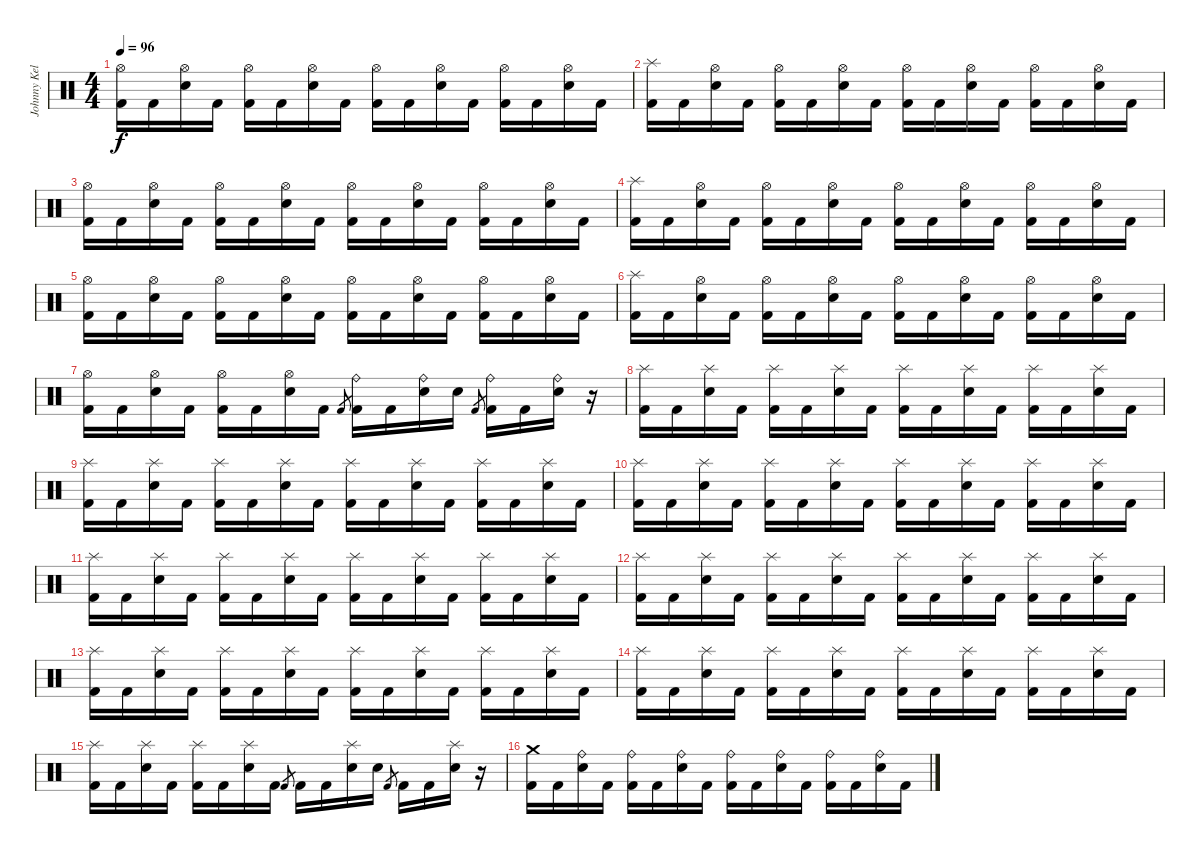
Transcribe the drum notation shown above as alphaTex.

\track ("Johnny Kelly - Drums" "Johnny Kel") {instrument percussion}
\staff {score}
\articulation defaults
\ts (4 4)
\tempo 96
\clef neutral
\ks c
("Hi-Hat (open)" "Kick (hit) 2").16{dy f} "Kick (hit) 2".16 ("Hi-Hat (open)" "Electric Snare (hit)").16 "Kick (hit) 2".16 ("Hi-Hat (open)" "Kick (hit) 2").16 "Kick (hit) 2".16 ("Hi-Hat (open)" "Electric Snare (hit)").16 "Kick (hit) 2".16 ("Hi-Hat (open)" "Kick (hit) 2").16 "Kick (hit) 2".16 ("Hi-Hat (open)" "Electric Snare (hit)").16 "Kick (hit) 2".16 ("Hi-Hat (open)" "Kick (hit) 2").16 "Kick (hit) 2".16 ("Hi-Hat (open)" "Electric Snare (hit)").16 "Kick (hit) 2".16 |
("Splash (hit)" "Kick (hit) 2").16 "Kick (hit) 2".16 ("Hi-Hat (open)" "Electric Snare (hit)").16 "Kick (hit) 2".16 ("Hi-Hat (open)" "Kick (hit) 2").16 "Kick (hit) 2".16 ("Hi-Hat (open)" "Electric Snare (hit)").16 "Kick (hit) 2".16 ("Hi-Hat (open)" "Kick (hit) 2").16 "Kick (hit) 2".16 ("Hi-Hat (open)" "Electric Snare (hit)").16 "Kick (hit) 2".16 ("Hi-Hat (open)" "Kick (hit) 2").16 "Kick (hit) 2".16 ("Hi-Hat (open)" "Electric Snare (hit)").16 "Kick (hit) 2".16 |
("Hi-Hat (open)" "Kick (hit) 2").16 "Kick (hit) 2".16 ("Hi-Hat (open)" "Electric Snare (hit)").16 "Kick (hit) 2".16 ("Hi-Hat (open)" "Kick (hit) 2").16 "Kick (hit) 2".16 ("Hi-Hat (open)" "Electric Snare (hit)").16 "Kick (hit) 2".16 ("Hi-Hat (open)" "Kick (hit) 2").16 "Kick (hit) 2".16 ("Hi-Hat (open)" "Electric Snare (hit)").16 "Kick (hit) 2".16 ("Hi-Hat (open)" "Kick (hit) 2").16 "Kick (hit) 2".16 ("Hi-Hat (open)" "Electric Snare (hit)").16 "Kick (hit) 2".16 |
("Splash (hit)" "Kick (hit) 2").16 "Kick (hit) 2".16 ("Hi-Hat (open)" "Electric Snare (hit)").16 "Kick (hit) 2".16 ("Hi-Hat (open)" "Kick (hit) 2").16 "Kick (hit) 2".16 ("Hi-Hat (open)" "Electric Snare (hit)").16 "Kick (hit) 2".16 ("Hi-Hat (open)" "Kick (hit) 2").16 "Kick (hit) 2".16 ("Hi-Hat (open)" "Electric Snare (hit)").16 "Kick (hit) 2".16 ("Hi-Hat (open)" "Kick (hit) 2").16 "Kick (hit) 2".16 ("Hi-Hat (open)" "Electric Snare (hit)").16 "Kick (hit) 2".16 |
("Hi-Hat (open)" "Kick (hit) 2").16 "Kick (hit) 2".16 ("Hi-Hat (open)" "Electric Snare (hit)").16 "Kick (hit) 2".16 ("Hi-Hat (open)" "Kick (hit) 2").16 "Kick (hit) 2".16 ("Hi-Hat (open)" "Electric Snare (hit)").16 "Kick (hit) 2".16 ("Hi-Hat (open)" "Kick (hit) 2").16 "Kick (hit) 2".16 ("Hi-Hat (open)" "Electric Snare (hit)").16 "Kick (hit) 2".16 ("Hi-Hat (open)" "Kick (hit) 2").16 "Kick (hit) 2".16 ("Hi-Hat (open)" "Electric Snare (hit)").16 "Kick (hit) 2".16 |
("Splash (hit)" "Kick (hit) 2").16 "Kick (hit) 2".16 ("Hi-Hat (open)" "Electric Snare (hit)").16 "Kick (hit) 2".16 ("Hi-Hat (open)" "Kick (hit) 2").16 "Kick (hit) 2".16 ("Hi-Hat (open)" "Electric Snare (hit)").16 "Kick (hit) 2".16 ("Hi-Hat (open)" "Kick (hit) 2").16 "Kick (hit) 2".16 ("Hi-Hat (open)" "Electric Snare (hit)").16 "Kick (hit) 2".16 ("Hi-Hat (open)" "Kick (hit) 2").16 "Kick (hit) 2".16 ("Hi-Hat (open)" "Electric Snare (hit)").16 "Kick (hit) 2".16 |
("Hi-Hat (open)" "Kick (hit) 2").16 "Kick (hit) 2".16 ("Hi-Hat (open)" "Electric Snare (hit)").16 "Kick (hit) 2".16 ("Hi-Hat (open)" "Kick (hit) 2").16 "Kick (hit) 2".16 ("Hi-Hat (open)" "Electric Snare (hit)").16 "Kick (hit) 2".16 "Kick (hit) 2".8{gr} ("Ride (bell)" "Kick (hit) 2").16 "Kick (hit) 2".16 ("Ride (bell)" "Electric Snare (hit)").16 "Electric Snare (hit)".16 "Kick (hit) 2".8{gr} ("Ride (bell)" "Kick (hit) 2").16 "Kick (hit) 2".16 ("Ride (bell)" "Electric Snare (hit)").16 r.16 |
("Splash (hit)" "Kick (hit) 2").16 "Kick (hit) 2".16 ("Splash (hit)" "Electric Snare (hit)").16 "Kick (hit) 2".16 ("Splash (hit)" "Kick (hit) 2").16 "Kick (hit) 2".16 ("Splash (hit)" "Electric Snare (hit)").16 "Kick (hit) 2".16 ("Splash (hit)" "Kick (hit) 2").16 "Kick (hit) 2".16 ("Splash (hit)" "Electric Snare (hit)").16 "Kick (hit) 2".16 ("Splash (hit)" "Kick (hit) 2").16 "Kick (hit) 2".16 ("Splash (hit)" "Electric Snare (hit)").16 "Kick (hit) 2".16 |
("Splash (hit)" "Kick (hit) 2").16 "Kick (hit) 2".16 ("Splash (hit)" "Electric Snare (hit)").16 "Kick (hit) 2".16 ("Splash (hit)" "Kick (hit) 2").16 "Kick (hit) 2".16 ("Splash (hit)" "Electric Snare (hit)").16 "Kick (hit) 2".16 ("Splash (hit)" "Kick (hit) 2").16 "Kick (hit) 2".16 ("Splash (hit)" "Electric Snare (hit)").16 "Kick (hit) 2".16 ("Splash (hit)" "Kick (hit) 2").16 "Kick (hit) 2".16 ("Splash (hit)" "Electric Snare (hit)").16 "Kick (hit) 2".16 |
("Splash (hit)" "Kick (hit) 2").16 "Kick (hit) 2".16 ("Splash (hit)" "Electric Snare (hit)").16 "Kick (hit) 2".16 ("Splash (hit)" "Kick (hit) 2").16 "Kick (hit) 2".16 ("Splash (hit)" "Electric Snare (hit)").16 "Kick (hit) 2".16 ("Splash (hit)" "Kick (hit) 2").16 "Kick (hit) 2".16 ("Splash (hit)" "Electric Snare (hit)").16 "Kick (hit) 2".16 ("Splash (hit)" "Kick (hit) 2").16 "Kick (hit) 2".16 ("Splash (hit)" "Electric Snare (hit)").16 "Kick (hit) 2".16 |
("Splash (hit)" "Kick (hit) 2").16 "Kick (hit) 2".16 ("Splash (hit)" "Electric Snare (hit)").16 "Kick (hit) 2".16 ("Splash (hit)" "Kick (hit) 2").16 "Kick (hit) 2".16 ("Splash (hit)" "Electric Snare (hit)").16 "Kick (hit) 2".16 ("Splash (hit)" "Kick (hit) 2").16 "Kick (hit) 2".16 ("Splash (hit)" "Electric Snare (hit)").16 "Kick (hit) 2".16 ("Splash (hit)" "Kick (hit) 2").16 "Kick (hit) 2".16 ("Splash (hit)" "Electric Snare (hit)").16 "Kick (hit) 2".16 |
("Splash (hit)" "Kick (hit) 2").16 "Kick (hit) 2".16 ("Splash (hit)" "Electric Snare (hit)").16 "Kick (hit) 2".16 ("Splash (hit)" "Kick (hit) 2").16 "Kick (hit) 2".16 ("Splash (hit)" "Electric Snare (hit)").16 "Kick (hit) 2".16 ("Splash (hit)" "Kick (hit) 2").16 "Kick (hit) 2".16 ("Splash (hit)" "Electric Snare (hit)").16 "Kick (hit) 2".16 ("Splash (hit)" "Kick (hit) 2").16 "Kick (hit) 2".16 ("Splash (hit)" "Electric Snare (hit)").16 "Kick (hit) 2".16 |
("Splash (hit)" "Kick (hit) 2").16 "Kick (hit) 2".16 ("Splash (hit)" "Electric Snare (hit)").16 "Kick (hit) 2".16 ("Splash (hit)" "Kick (hit) 2").16 "Kick (hit) 2".16 ("Splash (hit)" "Electric Snare (hit)").16 "Kick (hit) 2".16 ("Splash (hit)" "Kick (hit) 2").16 "Kick (hit) 2".16 ("Splash (hit)" "Electric Snare (hit)").16 "Kick (hit) 2".16 ("Splash (hit)" "Kick (hit) 2").16 "Kick (hit) 2".16 ("Splash (hit)" "Electric Snare (hit)").16 "Kick (hit) 2".16 |
("Splash (hit)" "Kick (hit) 2").16 "Kick (hit) 2".16 ("Splash (hit)" "Electric Snare (hit)").16 "Kick (hit) 2".16 ("Splash (hit)" "Kick (hit) 2").16 "Kick (hit) 2".16 ("Splash (hit)" "Electric Snare (hit)").16 "Kick (hit) 2".16 ("Splash (hit)" "Kick (hit) 2").16 "Kick (hit) 2".16 ("Splash (hit)" "Electric Snare (hit)").16 "Kick (hit) 2".16 ("Splash (hit)" "Kick (hit) 2").16 "Kick (hit) 2".16 ("Splash (hit)" "Electric Snare (hit)").16 "Kick (hit) 2".16 |
("Splash (hit)" "Kick (hit) 2").16 "Kick (hit) 2".16 ("Splash (hit)" "Electric Snare (hit)").16 "Kick (hit) 2".16 ("Splash (hit)" "Kick (hit) 2").16 "Kick (hit) 2".16 ("Splash (hit)" "Electric Snare (hit)").16 "Kick (hit) 2".16 "Kick (hit) 2".8{gr} "Kick (hit) 2".16 "Kick (hit) 2".16 ("Splash (hit)" "Electric Snare (hit)").16 "Electric Snare (hit)".16 "Kick (hit) 2".8{gr} "Kick (hit) 2".16 "Kick (hit) 2".16 ("Splash (hit)" "Electric Snare (hit)").16 r.16 |
("Crash medium (hit)" "Kick (hit) 2").16 "Kick (hit) 2".16 ("Ride (bell)" "Electric Snare (hit)").16 "Kick (hit) 2".16 ("Ride (bell)" "Kick (hit) 2").16 "Kick (hit) 2".16 ("Ride (bell)" "Electric Snare (hit)").16 "Kick (hit) 2".16 ("Ride (bell)" "Kick (hit) 2").16 "Kick (hit) 2".16 ("Ride (bell)" "Electric Snare (hit)").16 "Kick (hit) 2".16 ("Ride (bell)" "Kick (hit) 2").16 "Kick (hit) 2".16 ("Ride (bell)" "Electric Snare (hit)").16 "Kick (hit) 2".16
